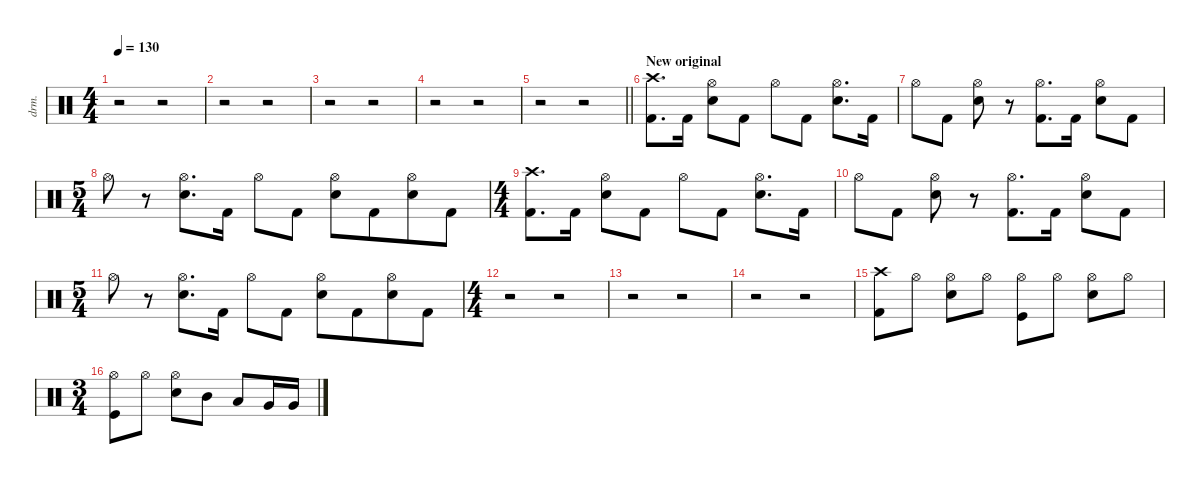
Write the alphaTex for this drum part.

\defaultSystemsLayout 4
\hideDynamics
\bracketExtendMode nobrackets
\otherSystemsTrackNameOrientation horizontal
\track ("Manouche" "drm.") {instrument percussion}
\staff {score}
\articulation defaults
\ts (4 4)
\tempo 130
\clef neutral
\ks c
r.2{dy ff beam Down} r.2{beam Down} |
r.2{beam Down} r.2{beam Down} |
r.2{beam Down} r.2{beam Down} |
r.2{beam Down} r.2{beam Down} |
\barLineRight lightlight
r.2{beam Down} r.2{beam Down} |
\section ("" "New original")
("Crash high (hit)" "Kick (hit) 2").8{d dy f beam Down} "Kick (hit) 2".16{beam Down} ("Hi-Hat (open)" "Snare (hit) 2").8{beam Down} "Kick (hit) 2".8{beam Down} "Hi-Hat (open)".8{beam Down} "Kick (hit) 2".8{beam Down} ("Hi-Hat (open)" "Snare (hit) 2").8{d beam Down} "Kick (hit) 2".16{beam Down} |
"Hi-Hat (open)".8{beam Down} "Kick (hit) 2".8{beam Down} ("Hi-Hat (open)" "Snare (hit) 2").8{beam Down} r.8{beam Down} ("Hi-Hat (open)" "Kick (hit) 2").8{d beam Down} "Kick (hit) 2".16{beam Down} ("Hi-Hat (open)" "Snare (hit) 2").8{beam Down} "Kick (hit) 2".8{beam Down} |
\ts (5 4)
\beaming (8 2 2 2 4)
"Hi-Hat (open)".8{beam Down} r.8{beam Down} ("Hi-Hat (open)" "Snare (hit) 2").8{d beam Down} "Kick (hit) 2".16{beam Down} "Hi-Hat (open)".8{beam Down} "Kick (hit) 2".8{beam Down} ("Hi-Hat (open)" "Snare (hit) 2").8{beam Down} "Kick (hit) 2".8{beam Down} ("Hi-Hat (open)" "Snare (hit) 2").8{beam Down} "Kick (hit) 2".8{beam Down} |
\ts (4 4)
\beaming (8 2 2 2 2)
("Crash high (hit)" "Kick (hit) 2").8{d beam Down} "Kick (hit) 2".16{beam Down} ("Hi-Hat (open)" "Snare (hit) 2").8{beam Down} "Kick (hit) 2".8{beam Down} "Hi-Hat (open)".8{beam Down} "Kick (hit) 2".8{beam Down} ("Hi-Hat (open)" "Snare (hit) 2").8{d beam Down} "Kick (hit) 2".16{beam Down} |
"Hi-Hat (open)".8{beam Down} "Kick (hit) 2".8{beam Down} ("Hi-Hat (open)" "Snare (hit) 2").8{beam Down} r.8{beam Down} ("Hi-Hat (open)" "Kick (hit) 2").8{d beam Down} "Kick (hit) 2".16{beam Down} ("Hi-Hat (open)" "Snare (hit) 2").8{beam Down} "Kick (hit) 2".8{beam Down} |
\ts (5 4)
\beaming (8 2 2 2 4)
"Hi-Hat (open)".8{beam Down} r.8{beam Down} ("Hi-Hat (open)" "Snare (hit) 2").8{d beam Down} "Kick (hit) 2".16{beam Down} "Hi-Hat (open)".8{beam Down} "Kick (hit) 2".8{beam Down} ("Hi-Hat (open)" "Snare (hit) 2").8{beam Down} "Kick (hit) 2".8{beam Down} ("Hi-Hat (open)" "Snare (hit) 2").8{beam Down} "Kick (hit) 2".8{beam Down} |
\ts (4 4)
\beaming (8 2 2 2 2)
r.2{beam Down} r.2{beam Down} |
r.2{beam Down} r.2{beam Down} |
r.2{beam Down} r.2{beam Down} |
("Crash high (hit)" "Kick (hit) 2").8{dy fff beam Down} "Hi-Hat (open)".8{dy mp beam Down} ("Hi-Hat (open)" "Snare (hit) 2").8{dy f beam Down} "Hi-Hat (open)".8{dy mp beam Down} ("Hi-Hat (open)" "Kick (hit)").8{dy f beam Down} "Hi-Hat (open)".8{dy mp beam Down} ("Hi-Hat (open)" "Snare (hit) 2").8{dy f beam Down} "Hi-Hat (open)".8{dy mp beam Down} |
\ts (3 4)
\beaming (8 2 2 2)
("Hi-Hat (open)" "Kick (hit)").8{dy f beam Down} "Hi-Hat (open)".8{dy mp beam Down} ("Hi-Hat (open)" "Snare (hit) 2").8{dy f beam Down} "Mid Tom (hit)".8{beam Down} "Low Tom (hit)".8{beam Up} "Very Low Tom (hit)".16{beam Up} "Very Low Tom (hit)".16{beam Up}
